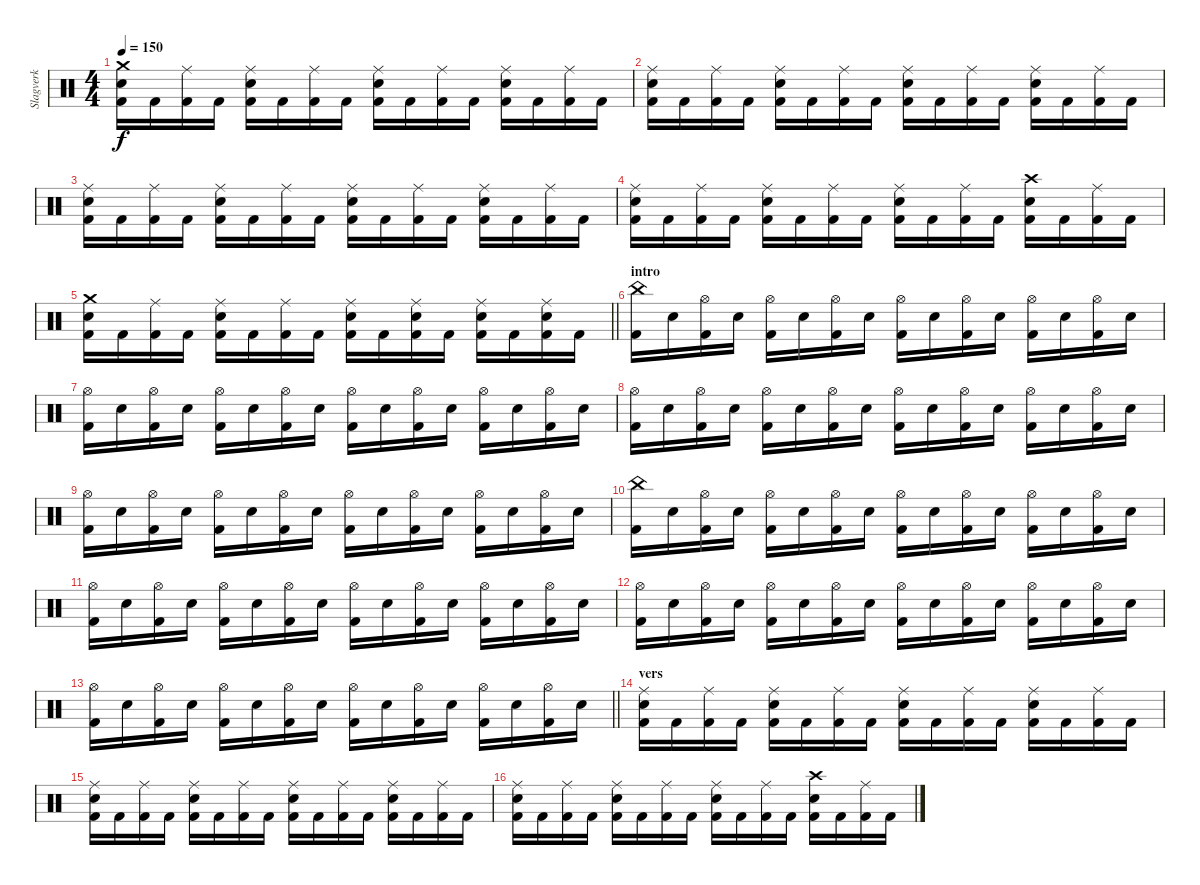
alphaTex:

\track ("Slagverk" "Slagverk") {instrument percussion}
\staff {score}
\articulation defaults
\ts (4 4)
\tempo 150
\clef neutral
\ks c
("Crash medium (hit)" "Electric Snare (hit)" "Kick (hit) 2").16{dy f} "Kick (hit) 2".16 ("Ride (middle)" "Kick (hit) 2").16 "Kick (hit) 2".16 ("Ride (middle)" "Electric Snare (hit)" "Kick (hit) 2").16 "Kick (hit) 2".16 ("Ride (middle)" "Kick (hit) 2").16 "Kick (hit) 2".16 ("Ride (middle)" "Electric Snare (hit)" "Kick (hit) 2").16 "Kick (hit) 2".16 ("Ride (middle)" "Kick (hit) 2").16 "Kick (hit) 2".16 ("Ride (middle)" "Electric Snare (hit)" "Kick (hit) 2").16 "Kick (hit) 2".16 ("Ride (middle)" "Kick (hit) 2").16 "Kick (hit) 2".16 |
("Ride (middle)" "Electric Snare (hit)" "Kick (hit) 2").16 "Kick (hit) 2".16 ("Ride (middle)" "Kick (hit) 2").16 "Kick (hit) 2".16 ("Ride (middle)" "Electric Snare (hit)" "Kick (hit) 2").16 "Kick (hit) 2".16 ("Ride (middle)" "Kick (hit) 2").16 "Kick (hit) 2".16 ("Ride (middle)" "Electric Snare (hit)" "Kick (hit) 2").16 "Kick (hit) 2".16 ("Ride (middle)" "Kick (hit) 2").16 "Kick (hit) 2".16 ("Ride (middle)" "Electric Snare (hit)" "Kick (hit) 2").16 "Kick (hit) 2".16 ("Ride (middle)" "Kick (hit) 2").16 "Kick (hit) 2".16 |
("Ride (middle)" "Electric Snare (hit)" "Kick (hit) 2").16 "Kick (hit) 2".16 ("Ride (middle)" "Kick (hit) 2").16 "Kick (hit) 2".16 ("Ride (middle)" "Electric Snare (hit)" "Kick (hit) 2").16 "Kick (hit) 2".16 ("Ride (middle)" "Kick (hit) 2").16 "Kick (hit) 2".16 ("Ride (middle)" "Electric Snare (hit)" "Kick (hit) 2").16 "Kick (hit) 2".16 ("Ride (middle)" "Kick (hit) 2").16 "Kick (hit) 2".16 ("Ride (middle)" "Electric Snare (hit)" "Kick (hit) 2").16 "Kick (hit) 2".16 ("Ride (middle)" "Kick (hit) 2").16 "Kick (hit) 2".16 |
("Ride (middle)" "Electric Snare (hit)" "Kick (hit) 2").16 "Kick (hit) 2".16 ("Ride (middle)" "Kick (hit) 2").16 "Kick (hit) 2".16 ("Ride (middle)" "Electric Snare (hit)" "Kick (hit) 2").16 "Kick (hit) 2".16 ("Ride (middle)" "Kick (hit) 2").16 "Kick (hit) 2".16 ("Ride (middle)" "Electric Snare (hit)" "Kick (hit) 2").16 "Kick (hit) 2".16 ("Ride (middle)" "Kick (hit) 2").16 "Kick (hit) 2".16 ("Crash high (hit)" "Electric Snare (hit)" "Kick (hit) 2").16 "Kick (hit) 2".16 ("Ride (middle)" "Kick (hit) 2").16 "Kick (hit) 2".16 |
\barLineRight lightlight
("Crash medium (hit)" "Electric Snare (hit)" "Kick (hit) 2").16 "Kick (hit) 2".16 ("Ride (middle)" "Kick (hit) 2").16 "Kick (hit) 2".16 ("Ride (middle)" "Electric Snare (hit)" "Kick (hit) 2").16 "Kick (hit) 2".16 ("Ride (middle)" "Kick (hit) 2").16 "Kick (hit) 2".16 ("Ride (middle)" "Electric Snare (hit)" "Kick (hit) 2").16 "Kick (hit) 2".16 ("Ride (middle)" "Electric Snare (hit)" "Kick (hit) 2").16 "Kick (hit) 2".16 ("Ride (middle)" "Electric Snare (hit)" "Kick (hit) 2").16 "Kick (hit) 2".16 ("Ride (middle)" "Electric Snare (hit)" "Kick (hit) 2").16 "Kick (hit) 2".16 |
\section ("" "intro")
("China (hit)" "Kick (hit) 2").16 "Electric Snare (hit)".16 ("Hi-Hat (open)" "Kick (hit) 2").16 "Electric Snare (hit)".16 ("Hi-Hat (open)" "Kick (hit) 2").16 "Electric Snare (hit)".16 ("Hi-Hat (open)" "Kick (hit) 2").16 "Electric Snare (hit)".16 ("Hi-Hat (open)" "Kick (hit) 2").16 "Electric Snare (hit)".16 ("Hi-Hat (open)" "Kick (hit) 2").16 "Electric Snare (hit)".16 ("Hi-Hat (open)" "Kick (hit) 2").16 "Electric Snare (hit)".16 ("Hi-Hat (open)" "Kick (hit) 2").16 "Electric Snare (hit)".16 |
("Hi-Hat (open)" "Kick (hit) 2").16 "Electric Snare (hit)".16 ("Hi-Hat (open)" "Kick (hit) 2").16 "Electric Snare (hit)".16 ("Hi-Hat (open)" "Kick (hit) 2").16 "Electric Snare (hit)".16 ("Hi-Hat (open)" "Kick (hit) 2").16 "Electric Snare (hit)".16 ("Hi-Hat (open)" "Kick (hit) 2").16 "Electric Snare (hit)".16 ("Hi-Hat (open)" "Kick (hit) 2").16 "Electric Snare (hit)".16 ("Hi-Hat (open)" "Kick (hit) 2").16 "Electric Snare (hit)".16 ("Hi-Hat (open)" "Kick (hit) 2").16 "Electric Snare (hit)".16 |
("Hi-Hat (open)" "Kick (hit) 2").16 "Electric Snare (hit)".16 ("Hi-Hat (open)" "Kick (hit) 2").16 "Electric Snare (hit)".16 ("Hi-Hat (open)" "Kick (hit) 2").16 "Electric Snare (hit)".16 ("Hi-Hat (open)" "Kick (hit) 2").16 "Electric Snare (hit)".16 ("Hi-Hat (open)" "Kick (hit) 2").16 "Electric Snare (hit)".16 ("Hi-Hat (open)" "Kick (hit) 2").16 "Electric Snare (hit)".16 ("Hi-Hat (open)" "Kick (hit) 2").16 "Electric Snare (hit)".16 ("Hi-Hat (open)" "Kick (hit) 2").16 "Electric Snare (hit)".16 |
("Hi-Hat (open)" "Kick (hit) 2").16 "Electric Snare (hit)".16 ("Hi-Hat (open)" "Kick (hit) 2").16 "Electric Snare (hit)".16 ("Hi-Hat (open)" "Kick (hit) 2").16 "Electric Snare (hit)".16 ("Hi-Hat (open)" "Kick (hit) 2").16 "Electric Snare (hit)".16 ("Hi-Hat (open)" "Kick (hit) 2").16 "Electric Snare (hit)".16 ("Hi-Hat (open)" "Kick (hit) 2").16 "Electric Snare (hit)".16 ("Hi-Hat (open)" "Kick (hit) 2").16 "Electric Snare (hit)".16 ("Hi-Hat (open)" "Kick (hit) 2").16 "Electric Snare (hit)".16 |
("China (hit)" "Kick (hit) 2").16 "Electric Snare (hit)".16 ("Hi-Hat (open)" "Kick (hit) 2").16 "Electric Snare (hit)".16 ("Hi-Hat (open)" "Kick (hit) 2").16 "Electric Snare (hit)".16 ("Hi-Hat (open)" "Kick (hit) 2").16 "Electric Snare (hit)".16 ("Hi-Hat (open)" "Kick (hit) 2").16 "Electric Snare (hit)".16 ("Hi-Hat (open)" "Kick (hit) 2").16 "Electric Snare (hit)".16 ("Hi-Hat (open)" "Kick (hit) 2").16 "Electric Snare (hit)".16 ("Hi-Hat (open)" "Kick (hit) 2").16 "Electric Snare (hit)".16 |
("Hi-Hat (open)" "Kick (hit) 2").16 "Electric Snare (hit)".16 ("Hi-Hat (open)" "Kick (hit) 2").16 "Electric Snare (hit)".16 ("Hi-Hat (open)" "Kick (hit) 2").16 "Electric Snare (hit)".16 ("Hi-Hat (open)" "Kick (hit) 2").16 "Electric Snare (hit)".16 ("Hi-Hat (open)" "Kick (hit) 2").16 "Electric Snare (hit)".16 ("Hi-Hat (open)" "Kick (hit) 2").16 "Electric Snare (hit)".16 ("Hi-Hat (open)" "Kick (hit) 2").16 "Electric Snare (hit)".16 ("Hi-Hat (open)" "Kick (hit) 2").16 "Electric Snare (hit)".16 |
("Hi-Hat (open)" "Kick (hit) 2").16 "Electric Snare (hit)".16 ("Hi-Hat (open)" "Kick (hit) 2").16 "Electric Snare (hit)".16 ("Hi-Hat (open)" "Kick (hit) 2").16 "Electric Snare (hit)".16 ("Hi-Hat (open)" "Kick (hit) 2").16 "Electric Snare (hit)".16 ("Hi-Hat (open)" "Kick (hit) 2").16 "Electric Snare (hit)".16 ("Hi-Hat (open)" "Kick (hit) 2").16 "Electric Snare (hit)".16 ("Hi-Hat (open)" "Kick (hit) 2").16 "Electric Snare (hit)".16 ("Hi-Hat (open)" "Kick (hit) 2").16 "Electric Snare (hit)".16 |
\barLineRight lightlight
("Hi-Hat (open)" "Kick (hit) 2").16 "Electric Snare (hit)".16 ("Hi-Hat (open)" "Kick (hit) 2").16 "Electric Snare (hit)".16 ("Hi-Hat (open)" "Kick (hit) 2").16 "Electric Snare (hit)".16 ("Hi-Hat (open)" "Kick (hit) 2").16 "Electric Snare (hit)".16 ("Hi-Hat (open)" "Kick (hit) 2").16 "Electric Snare (hit)".16 ("Hi-Hat (open)" "Kick (hit) 2").16 "Electric Snare (hit)".16 ("Hi-Hat (open)" "Kick (hit) 2").16 "Electric Snare (hit)".16 ("Hi-Hat (open)" "Kick (hit) 2").16 "Electric Snare (hit)".16 |
\section ("" "vers")
("Ride (middle)" "Electric Snare (hit)" "Kick (hit) 2").16 "Kick (hit) 2".16 ("Ride (middle)" "Kick (hit) 2").16 "Kick (hit) 2".16 ("Ride (middle)" "Electric Snare (hit)" "Kick (hit) 2").16 "Kick (hit) 2".16 ("Ride (middle)" "Kick (hit) 2").16 "Kick (hit) 2".16 ("Ride (middle)" "Electric Snare (hit)" "Kick (hit) 2").16 "Kick (hit) 2".16 ("Ride (middle)" "Kick (hit) 2").16 "Kick (hit) 2".16 ("Ride (middle)" "Electric Snare (hit)" "Kick (hit) 2").16 "Kick (hit) 2".16 ("Ride (middle)" "Kick (hit) 2").16 "Kick (hit) 2".16 |
("Ride (middle)" "Electric Snare (hit)" "Kick (hit) 2").16 "Kick (hit) 2".16 ("Ride (middle)" "Kick (hit) 2").16 "Kick (hit) 2".16 ("Ride (middle)" "Electric Snare (hit)" "Kick (hit) 2").16 "Kick (hit) 2".16 ("Ride (middle)" "Kick (hit) 2").16 "Kick (hit) 2".16 ("Ride (middle)" "Electric Snare (hit)" "Kick (hit) 2").16 "Kick (hit) 2".16 ("Ride (middle)" "Kick (hit) 2").16 "Kick (hit) 2".16 ("Ride (middle)" "Electric Snare (hit)" "Kick (hit) 2").16 "Kick (hit) 2".16 ("Ride (middle)" "Kick (hit) 2").16 "Kick (hit) 2".16 |
("Ride (middle)" "Electric Snare (hit)" "Kick (hit) 2").16 "Kick (hit) 2".16 ("Ride (middle)" "Kick (hit) 2").16 "Kick (hit) 2".16 ("Ride (middle)" "Electric Snare (hit)" "Kick (hit) 2").16 "Kick (hit) 2".16 ("Ride (middle)" "Kick (hit) 2").16 "Kick (hit) 2".16 ("Ride (middle)" "Electric Snare (hit)" "Kick (hit) 2").16 "Kick (hit) 2".16 ("Ride (middle)" "Kick (hit) 2").16 "Kick (hit) 2".16 ("Crash high (hit)" "Electric Snare (hit)" "Kick (hit) 2").16 "Kick (hit) 2".16 ("Ride (middle)" "Kick (hit) 2").16 "Kick (hit) 2".16
